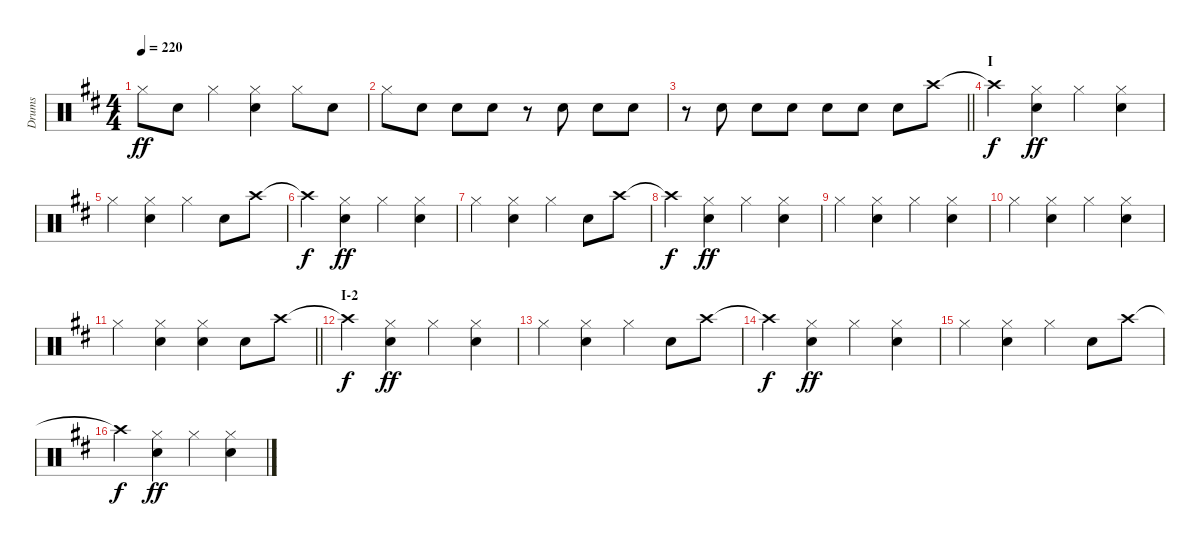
\track ("Drums" "Drums") {instrument percussion}
\staff {score}
\articulation defaults
\ts (4 4)
\tempo 220
\clef neutral
\ks d "Hi-Hat (closed)".8{dy ff} "Snare (hit) 2".8 "Hi-Hat (closed)".4
("Hi-Hat (closed)" "Snare (hit) 2").4 "Hi-Hat (closed)".8 "Snare (hit) 2".8 |
"Hi-Hat (closed)".8 "Snare (hit) 2".8 "Snare (hit) 2".8 "Snare (hit) 2".8 r.8 "Snare (hit) 2".8 "Snare (hit) 2".8 "Snare (hit) 2".8 |
\barLineRight lightlight
r.8 "Snare (hit) 2".8 "Snare (hit) 2".8 "Snare (hit) 2".8 "Snare (hit) 2".8 "Snare (hit) 2".8 "Snare (hit) 2".8 "Crash high (hit)".8 |
\section ("" "I")
"Crash high (hit)"{t}.4{dy f} ("Hi-Hat (closed)" "Snare (hit) 2").4{dy ff} "Hi-Hat (closed)".4 ("Hi-Hat (closed)" "Snare (hit) 2").4 |
"Hi-Hat (closed)".4 ("Hi-Hat (closed)" "Snare (hit) 2").4 "Hi-Hat (closed)".4 "Snare (hit) 2".8 "Crash high (hit)".8 |
"Crash high (hit)"{t}.4{dy f} ("Hi-Hat (closed)" "Snare (hit) 2").4{dy ff} "Hi-Hat (closed)".4 ("Hi-Hat (closed)" "Snare (hit) 2").4 |
"Hi-Hat (closed)".4 ("Hi-Hat (closed)" "Snare (hit) 2").4 "Hi-Hat (closed)".4 "Snare (hit) 2".8 "Crash high (hit)".8 |
"Crash high (hit)"{t}.4{dy f} ("Hi-Hat (closed)" "Snare (hit) 2").4{dy ff} "Hi-Hat (closed)".4 ("Hi-Hat (closed)" "Snare (hit) 2").4 |
"Hi-Hat (closed)".4 ("Hi-Hat (closed)" "Snare (hit) 2").4 "Hi-Hat (closed)".4 ("Hi-Hat (closed)" "Snare (hit) 2").4 |
"Hi-Hat (closed)".4 ("Hi-Hat (closed)" "Snare (hit) 2").4 "Hi-Hat (closed)".4 ("Hi-Hat (closed)" "Snare (hit) 2").4 |
\barLineRight lightlight "Hi-Hat (closed)".4
("Hi-Hat (closed)" "Snare (hit) 2").4 ("Hi-Hat (closed)" "Snare (hit) 2").4 "Snare (hit) 2".8 "Crash high (hit)".8 |
\section ("" "I-2")
"Crash high (hit)"{t}.4{dy f} ("Hi-Hat (closed)" "Snare (hit) 2").4{dy ff} "Hi-Hat (closed)".4 ("Hi-Hat (closed)" "Snare (hit) 2").4 |
"Hi-Hat (closed)".4 ("Hi-Hat (closed)" "Snare (hit) 2").4 "Hi-Hat (closed)".4 "Snare (hit) 2".8 "Crash high (hit)".8 |
"Crash high (hit)"{t}.4{dy f} ("Hi-Hat (closed)" "Snare (hit) 2").4{dy ff} "Hi-Hat (closed)".4 ("Hi-Hat (closed)" "Snare (hit) 2").4 |
"Hi-Hat (closed)".4 ("Hi-Hat (closed)" "Snare (hit) 2").4 "Hi-Hat (closed)".4 "Snare (hit) 2".8 "Crash high (hit)".8 |
"Crash high (hit)"{t}.4{dy f} ("Hi-Hat (closed)" "Snare (hit) 2").4{dy ff} "Hi-Hat (closed)".4 ("Hi-Hat (closed)" "Snare (hit) 2").4
